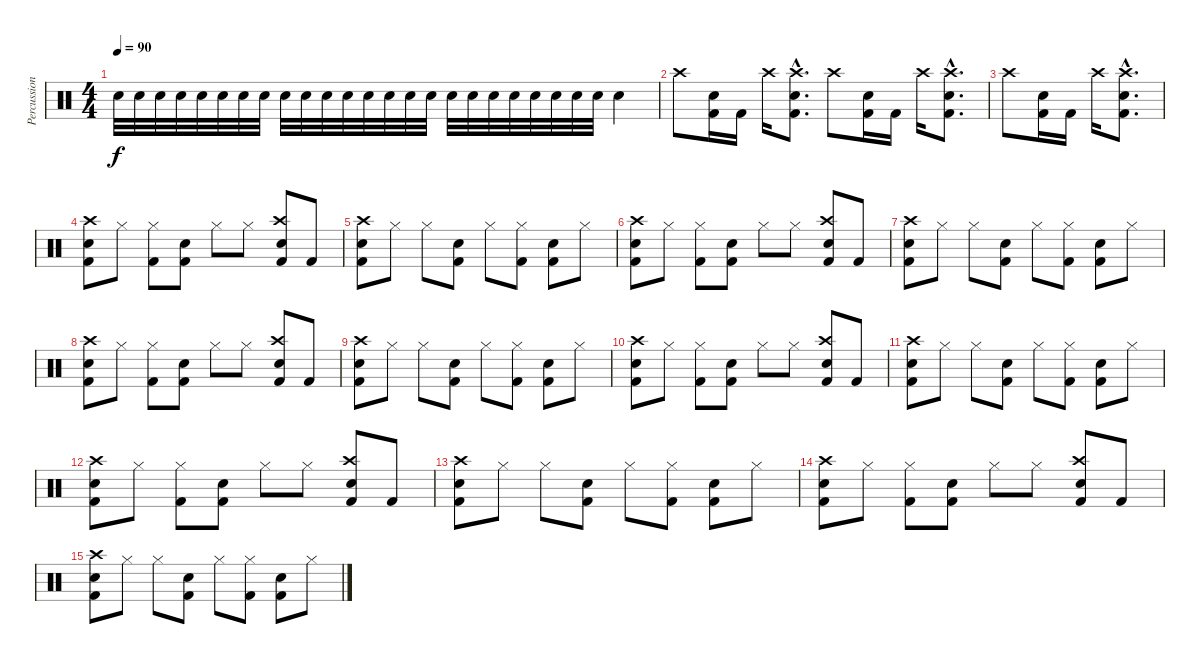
\track ("Percussion" "Percussion") {instrument percussion}
\staff {score}
\articulation defaults
\ts (4 4)
\tempo 90
\clef neutral
\ks c "Snare (hit) 2".32{dy f volume 13} "Snare (hit) 2".32 "Snare (hit) 2".32 "Snare (hit) 2".32 "Snare (hit) 2".32 "Snare (hit) 2".32 "Snare (hit) 2".32 "Snare (hit) 2".32 "Snare (hit) 2".32 "Snare (hit) 2".32 "Snare (hit) 2".32 "Snare (hit) 2".32 "Snare (hit) 2".32 "Snare (hit) 2".32 "Snare (hit) 2".32 "Snare (hit) 2".32 "Snare (hit) 2".32 "Snare (hit) 2".32 "Snare (hit) 2".32 "Snare (hit) 2".32 "Snare (hit) 2".32 "Snare (hit) 2".32 "Snare (hit) 2".32 "Snare (hit) 2".32 "Snare (hit) 2".4
|
"Crash high (hit)".8 ("Kick (hit) 2" "Snare (hit) 2").16 "Kick (hit) 2".16 "Crash high (hit)".16 ("Crash high (hit)"{hac} "Kick (hit) 2"{hac} "Snare (hit) 2"{hac}).8{d} "Crash high (hit)".8 ("Kick (hit) 2" "Snare (hit) 2").16 "Kick (hit) 2".16 "Crash high (hit)".16 ("Crash high (hit)"{hac} "Kick (hit) 2"{hac} "Snare (hit) 2"{hac}).8{d} |
"Crash high (hit)".8 ("Kick (hit) 2" "Snare (hit) 2").16 "Kick (hit) 2".16 "Crash high (hit)".16 ("Crash high (hit)"{hac} "Kick (hit) 2"{hac} "Snare (hit) 2"{hac}).8{d} |
("Crash high (hit)" "Kick (hit) 2" "Snare (hit) 2").8 "Hi-Hat (closed)".8 ("Kick (hit) 2" "Hi-Hat (closed)").8 ("Kick (hit) 2" "Snare (hit) 2").8 "Hi-Hat (closed)".8 "Hi-Hat (closed)".8 ("Crash high (hit)" "Kick (hit) 2" "Snare (hit) 2").8 "Kick (hit) 2".8 |
("Crash high (hit)" "Kick (hit) 2" "Snare (hit) 2").8 "Hi-Hat (closed)".8 "Hi-Hat (closed)".8 ("Kick (hit) 2" "Snare (hit) 2").8 "Hi-Hat (closed)".8 ("Kick (hit) 2" "Hi-Hat (closed)").8 ("Kick (hit) 2" "Snare (hit) 2").8 "Hi-Hat (closed)".8 |
("Crash high (hit)" "Kick (hit) 2" "Snare (hit) 2").8 "Hi-Hat (closed)".8 ("Kick (hit) 2" "Hi-Hat (closed)").8 ("Kick (hit) 2" "Snare (hit) 2").8 "Hi-Hat (closed)".8 "Hi-Hat (closed)".8 ("Crash high (hit)" "Kick (hit) 2" "Snare (hit) 2").8 "Kick (hit) 2".8 |
("Crash high (hit)" "Kick (hit) 2" "Snare (hit) 2").8 "Hi-Hat (closed)".8 "Hi-Hat (closed)".8 ("Kick (hit) 2" "Snare (hit) 2").8 "Hi-Hat (closed)".8 ("Kick (hit) 2" "Hi-Hat (closed)").8 ("Kick (hit) 2" "Snare (hit) 2").8 "Hi-Hat (closed)".8 |
("Crash high (hit)" "Kick (hit) 2" "Snare (hit) 2").8 "Hi-Hat (closed)".8 ("Kick (hit) 2" "Hi-Hat (closed)").8 ("Kick (hit) 2" "Snare (hit) 2").8 "Hi-Hat (closed)".8 "Hi-Hat (closed)".8 ("Crash high (hit)" "Kick (hit) 2" "Snare (hit) 2").8 "Kick (hit) 2".8 |
("Crash high (hit)" "Kick (hit) 2" "Snare (hit) 2").8 "Hi-Hat (closed)".8 "Hi-Hat (closed)".8 ("Kick (hit) 2" "Snare (hit) 2").8 "Hi-Hat (closed)".8 ("Kick (hit) 2" "Hi-Hat (closed)").8 ("Kick (hit) 2" "Snare (hit) 2").8 "Hi-Hat (closed)".8 |
("Crash high (hit)" "Kick (hit) 2" "Snare (hit) 2").8 "Hi-Hat (closed)".8 ("Kick (hit) 2" "Hi-Hat (closed)").8 ("Kick (hit) 2" "Snare (hit) 2").8 "Hi-Hat (closed)".8 "Hi-Hat (closed)".8 ("Crash high (hit)" "Kick (hit) 2" "Snare (hit) 2").8 "Kick (hit) 2".8 |
("Crash high (hit)" "Kick (hit) 2" "Snare (hit) 2").8 "Hi-Hat (closed)".8 "Hi-Hat (closed)".8 ("Kick (hit) 2" "Snare (hit) 2").8 "Hi-Hat (closed)".8 ("Kick (hit) 2" "Hi-Hat (closed)").8 ("Kick (hit) 2" "Snare (hit) 2").8 "Hi-Hat (closed)".8 |
("Crash high (hit)" "Kick (hit) 2" "Snare (hit) 2").8{volume 0} "Hi-Hat (closed)".8 ("Kick (hit) 2" "Hi-Hat (closed)").8 ("Kick (hit) 2" "Snare (hit) 2").8 "Hi-Hat (closed)".8 "Hi-Hat (closed)".8 ("Crash high (hit)" "Kick (hit) 2" "Snare (hit) 2").8 "Kick (hit) 2".8 |
("Crash high (hit)" "Kick (hit) 2" "Snare (hit) 2").8 "Hi-Hat (closed)".8 "Hi-Hat (closed)".8 ("Kick (hit) 2" "Snare (hit) 2").8 "Hi-Hat (closed)".8 ("Kick (hit) 2" "Hi-Hat (closed)").8 ("Kick (hit) 2" "Snare (hit) 2").8 "Hi-Hat (closed)".8 |
("Crash high (hit)" "Kick (hit) 2" "Snare (hit) 2").8 "Hi-Hat (closed)".8 ("Kick (hit) 2" "Hi-Hat (closed)").8 ("Kick (hit) 2" "Snare (hit) 2").8 "Hi-Hat (closed)".8 "Hi-Hat (closed)".8 ("Crash high (hit)" "Kick (hit) 2" "Snare (hit) 2").8 "Kick (hit) 2".8 |
("Crash high (hit)" "Kick (hit) 2" "Snare (hit) 2").8 "Hi-Hat (closed)".8 "Hi-Hat (closed)".8 ("Kick (hit) 2" "Snare (hit) 2").8 "Hi-Hat (closed)".8 ("Kick (hit) 2" "Hi-Hat (closed)").8 ("Kick (hit) 2" "Snare (hit) 2").8 "Hi-Hat (closed)".8
